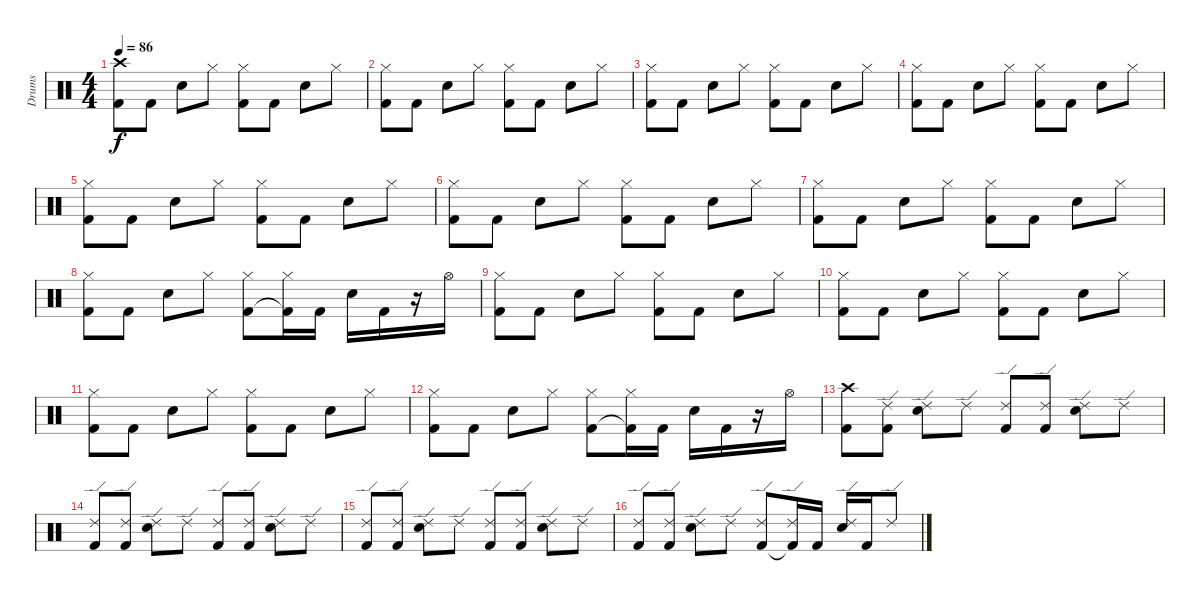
\track ("Drums" "Drums") {instrument percussion}
\staff {score}
\articulation defaults
\ts (4 4)
\tempo 86
\clef neutral
\ks aminor
("Crash high (hit)" "Kick (hit) 2").8{dy f} "Kick (hit) 2".8 "Snare (hit) 2".8 "Hi-Hat (closed)".8 ("Hi-Hat (closed)" "Kick (hit) 2").8 "Kick (hit) 2".8 "Snare (hit) 2".8 "Hi-Hat (closed)".8 |
("Hi-Hat (closed)" "Kick (hit) 2").8 "Kick (hit) 2".8 "Snare (hit) 2".8 "Hi-Hat (closed)".8 ("Hi-Hat (closed)" "Kick (hit) 2").8 "Kick (hit) 2".8 "Snare (hit) 2".8 "Hi-Hat (closed)".8 |
("Hi-Hat (closed)" "Kick (hit) 2").8 "Kick (hit) 2".8 "Snare (hit) 2".8 "Hi-Hat (closed)".8 ("Hi-Hat (closed)" "Kick (hit) 2").8 "Kick (hit) 2".8 "Snare (hit) 2".8 "Hi-Hat (closed)".8 |
("Hi-Hat (closed)" "Kick (hit) 2").8 "Kick (hit) 2".8 "Snare (hit) 2".8 "Hi-Hat (closed)".8 ("Hi-Hat (closed)" "Kick (hit) 2").8 "Kick (hit) 2".8 "Snare (hit) 2".8 "Hi-Hat (closed)".8 |
("Hi-Hat (closed)" "Kick (hit) 2").8 "Kick (hit) 2".8 "Snare (hit) 2".8 "Hi-Hat (closed)".8 ("Hi-Hat (closed)" "Kick (hit) 2").8 "Kick (hit) 2".8 "Snare (hit) 2".8 "Hi-Hat (closed)".8 |
("Hi-Hat (closed)" "Kick (hit) 2").8 "Kick (hit) 2".8 "Snare (hit) 2".8 "Hi-Hat (closed)".8 ("Hi-Hat (closed)" "Kick (hit) 2").8 "Kick (hit) 2".8 "Snare (hit) 2".8 "Hi-Hat (closed)".8 |
("Hi-Hat (closed)" "Kick (hit) 2").8 "Kick (hit) 2".8 "Snare (hit) 2".8 "Hi-Hat (closed)".8 ("Hi-Hat (closed)" "Kick (hit) 2").8 "Kick (hit) 2".8 "Snare (hit) 2".8 "Hi-Hat (closed)".8 |
("Hi-Hat (closed)" "Kick (hit) 2").8 "Kick (hit) 2".8 "Snare (hit) 2".8 "Hi-Hat (closed)".8 ("Hi-Hat (closed)" "Kick (hit) 2").8 ("Hi-Hat (closed)" "Kick (hit) 2"{t}).16 "Kick (hit) 2".16 "Snare (hit) 2".16 "Kick (hit) 2".16 r.16 "Hi-Hat (open)".16 |
("Hi-Hat (closed)" "Kick (hit) 2").8 "Kick (hit) 2".8 "Snare (hit) 2".8 "Hi-Hat (closed)".8 ("Hi-Hat (closed)" "Kick (hit) 2").8 "Kick (hit) 2".8 "Snare (hit) 2".8 "Hi-Hat (closed)".8 |
("Hi-Hat (closed)" "Kick (hit) 2").8 "Kick (hit) 2".8 "Snare (hit) 2".8 "Hi-Hat (closed)".8 ("Hi-Hat (closed)" "Kick (hit) 2").8 "Kick (hit) 2".8 "Snare (hit) 2".8 "Hi-Hat (closed)".8 |
("Hi-Hat (closed)" "Kick (hit) 2").8 "Kick (hit) 2".8 "Snare (hit) 2".8 "Hi-Hat (closed)".8 ("Hi-Hat (closed)" "Kick (hit) 2").8 "Kick (hit) 2".8 "Snare (hit) 2".8 "Hi-Hat (closed)".8 |
("Hi-Hat (closed)" "Kick (hit) 2").8 "Kick (hit) 2".8 "Snare (hit) 2".8 "Hi-Hat (closed)".8 ("Hi-Hat (closed)" "Kick (hit) 2").8 ("Hi-Hat (closed)" "Kick (hit) 2"{t}).16 "Kick (hit) 2".16 "Snare (hit) 2".16 "Kick (hit) 2".16 r.16 "Hi-Hat (open)".16 |
("Crash high (hit)" "Kick (hit) 2").8 ("Ride (edge) 2" "Kick (hit) 2").8 ("Ride (edge) 2" "Snare (hit) 2").8 "Ride (edge) 2".8 ("Ride (edge) 2" "Kick (hit) 2").8 ("Ride (edge) 2" "Kick (hit) 2").8 ("Ride (edge) 2" "Snare (hit) 2").8 "Ride (edge) 2".8 |
("Ride (edge) 2" "Kick (hit) 2").8 ("Ride (edge) 2" "Kick (hit) 2").8 ("Ride (edge) 2" "Snare (hit) 2").8 "Ride (edge) 2".8 ("Ride (edge) 2" "Kick (hit) 2").8 ("Ride (edge) 2" "Kick (hit) 2").8 ("Ride (edge) 2" "Snare (hit) 2").8 "Ride (edge) 2".8 |
("Ride (edge) 2" "Kick (hit) 2").8 ("Ride (edge) 2" "Kick (hit) 2").8 ("Ride (edge) 2" "Snare (hit) 2").8 "Ride (edge) 2".8 ("Ride (edge) 2" "Kick (hit) 2").8 ("Ride (edge) 2" "Kick (hit) 2").8 ("Ride (edge) 2" "Snare (hit) 2").8 "Ride (edge) 2".8 |
("Ride (edge) 2" "Kick (hit) 2").8 ("Ride (edge) 2" "Kick (hit) 2").8 ("Ride (edge) 2" "Snare (hit) 2").8 "Ride (edge) 2".8 ("Ride (edge) 2" "Kick (hit) 2").8 ("Ride (edge) 2" "Kick (hit) 2"{t}).16 "Kick (hit) 2".16 ("Ride (edge) 2" "Snare (hit) 2").16 "Kick (hit) 2".16 "Ride (edge) 2".8
